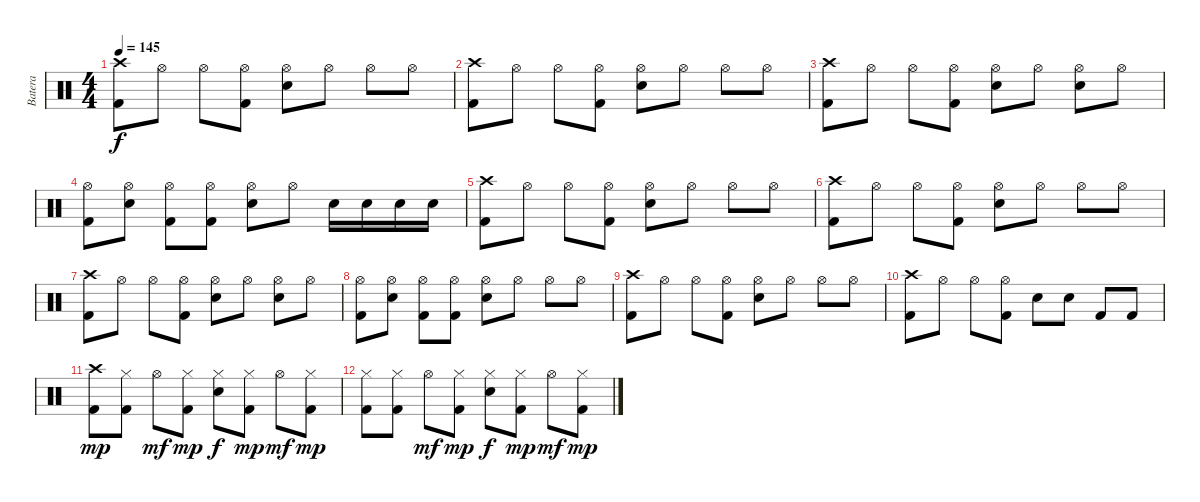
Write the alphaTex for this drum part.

\track ("Batera" "Batera") {instrument percussion}
\staff {score}
\articulation defaults
\ts (4 4)
\tempo 145
\clef neutral
\ks c
("Crash high (hit)" "Kick (hit) 2").8{dy f} "Hi-Hat (open)".8 "Hi-Hat (open)".8 ("Hi-Hat (open)" "Kick (hit) 2").8 ("Hi-Hat (open)" "Electric Snare (hit)").8 "Hi-Hat (open)".8 "Hi-Hat (open)".8 "Hi-Hat (open)".8 |
("Crash high (hit)" "Kick (hit) 2").8 "Hi-Hat (open)".8 "Hi-Hat (open)".8 ("Hi-Hat (open)" "Kick (hit) 2").8 ("Hi-Hat (open)" "Electric Snare (hit)").8 "Hi-Hat (open)".8 "Hi-Hat (open)".8 "Hi-Hat (open)".8 |
("Crash high (hit)" "Kick (hit) 2").8 "Hi-Hat (open)".8 "Hi-Hat (open)".8 ("Hi-Hat (open)" "Kick (hit) 2").8 ("Hi-Hat (open)" "Electric Snare (hit)").8 "Hi-Hat (open)".8 ("Hi-Hat (open)" "Electric Snare (hit)").8 "Hi-Hat (open)".8 |
("Hi-Hat (open)" "Kick (hit) 2").8 ("Hi-Hat (open)" "Electric Snare (hit)").8 ("Hi-Hat (open)" "Kick (hit) 2").8 ("Hi-Hat (open)" "Kick (hit) 2").8 ("Hi-Hat (open)" "Electric Snare (hit)").8 "Hi-Hat (open)".8 "Electric Snare (hit)".16 "Electric Snare (hit)".16 "Electric Snare (hit)".16 "Electric Snare (hit)".16 |
("Crash high (hit)" "Kick (hit) 2").8 "Hi-Hat (open)".8 "Hi-Hat (open)".8 ("Hi-Hat (open)" "Kick (hit) 2").8 ("Hi-Hat (open)" "Electric Snare (hit)").8 "Hi-Hat (open)".8 "Hi-Hat (open)".8 "Hi-Hat (open)".8 |
("Crash high (hit)" "Kick (hit) 2").8 "Hi-Hat (open)".8 "Hi-Hat (open)".8 ("Hi-Hat (open)" "Kick (hit) 2").8 ("Hi-Hat (open)" "Electric Snare (hit)").8 "Hi-Hat (open)".8 "Hi-Hat (open)".8 "Hi-Hat (open)".8 |
("Crash high (hit)" "Kick (hit) 2").8 "Hi-Hat (open)".8 "Hi-Hat (open)".8 ("Hi-Hat (open)" "Kick (hit) 2").8 ("Hi-Hat (open)" "Electric Snare (hit)").8 "Hi-Hat (open)".8 ("Hi-Hat (open)" "Electric Snare (hit)").8 "Hi-Hat (open)".8 |
("Hi-Hat (open)" "Kick (hit) 2").8 ("Hi-Hat (open)" "Electric Snare (hit)").8 ("Hi-Hat (open)" "Kick (hit) 2").8 ("Hi-Hat (open)" "Kick (hit) 2").8 ("Hi-Hat (open)" "Electric Snare (hit)").8 "Hi-Hat (open)".8 "Hi-Hat (open)".8 "Hi-Hat (open)".8 |
("Crash high (hit)" "Kick (hit) 2").8 "Hi-Hat (open)".8 "Hi-Hat (open)".8 ("Hi-Hat (open)" "Kick (hit) 2").8 ("Hi-Hat (open)" "Electric Snare (hit)").8 "Hi-Hat (open)".8 "Hi-Hat (open)".8 "Hi-Hat (open)".8 |
("Crash high (hit)" "Kick (hit) 2").8 "Hi-Hat (open)".8 "Hi-Hat (open)".8 ("Hi-Hat (open)" "Kick (hit) 2").8 "Electric Snare (hit)".8 "Electric Snare (hit)".8 "Kick (hit) 2".8 "Kick (hit) 2".8 |
("Crash high (hit)" "Kick (hit) 2").8{dy mp} ("Hi-Hat (closed)" "Kick (hit) 2").8 "Hi-Hat (open)".8{dy mf} ("Hi-Hat (closed)" "Kick (hit) 2").8{dy mp} ("Hi-Hat (closed)" "Electric Snare (hit)").8{dy f} ("Hi-Hat (closed)" "Kick (hit) 2").8{dy mp} "Hi-Hat (open)".8{dy mf} ("Hi-Hat (closed)" "Kick (hit) 2").8{dy mp} |
("Hi-Hat (closed)" "Kick (hit) 2").8 ("Hi-Hat (closed)" "Kick (hit) 2").8 "Hi-Hat (open)".8{dy mf} ("Hi-Hat (closed)" "Kick (hit) 2").8{dy mp} ("Hi-Hat (closed)" "Electric Snare (hit)").8{dy f} ("Hi-Hat (closed)" "Kick (hit) 2").8{dy mp} "Hi-Hat (open)".8{dy mf} ("Hi-Hat (closed)" "Kick (hit) 2").8{dy mp}
